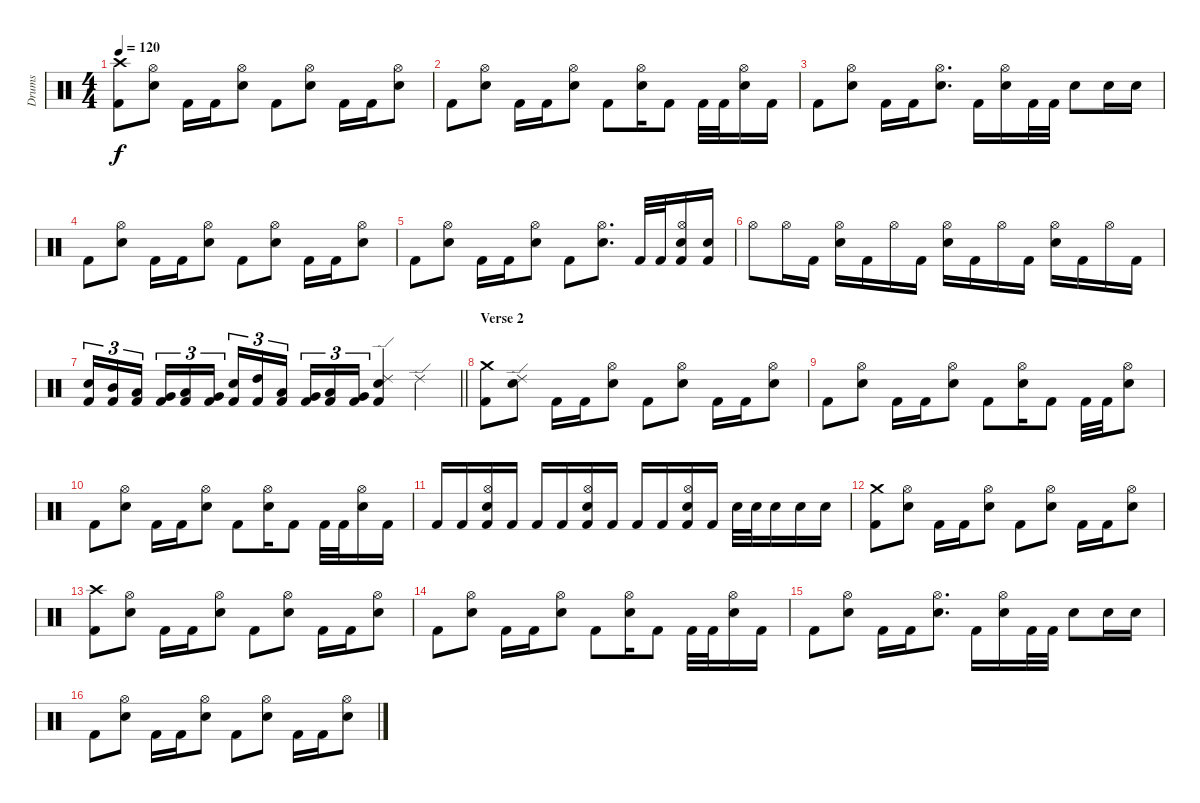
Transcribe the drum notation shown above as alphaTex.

\track ("Drums" "Drums") {instrument percussion}
\staff {score}
\articulation defaults
\ts (4 4)
\tempo 120
\clef neutral
\ks c
("Crash high (hit)" "Kick (hit) 2").8{dy f} ("Hi-Hat (open)" "Electric Snare (hit)").8 "Kick (hit) 2".16 "Kick (hit) 2".16 ("Hi-Hat (open)" "Electric Snare (hit)").8 "Kick (hit) 2".8 ("Hi-Hat (open)" "Electric Snare (hit)").8 "Kick (hit) 2".16 "Kick (hit) 2".16 ("Hi-Hat (open)" "Electric Snare (hit)").8 |
"Kick (hit) 2".8 ("Hi-Hat (open)" "Electric Snare (hit)").8 "Kick (hit) 2".16 "Kick (hit) 2".16 ("Hi-Hat (open)" "Electric Snare (hit)").8 "Kick (hit) 2".8 ("Hi-Hat (open)" "Electric Snare (hit)").16 "Kick (hit) 2".8 "Kick (hit) 2".32 "Kick (hit) 2".32 ("Hi-Hat (open)" "Electric Snare (hit)").16 "Kick (hit) 2".16 |
"Kick (hit) 2".8 ("Hi-Hat (open)" "Electric Snare (hit)").8 "Kick (hit) 2".16 "Kick (hit) 2".16 ("Hi-Hat (open)" "Electric Snare (hit)").8{d} "Kick (hit) 2".16 ("Hi-Hat (open)" "Electric Snare (hit)").16 "Kick (hit) 2".32 "Kick (hit) 2".32 "Electric Snare (hit)".8 "Electric Snare (hit)".16 "Electric Snare (hit)".16 |
"Kick (hit) 2".8 ("Hi-Hat (open)" "Electric Snare (hit)").8 "Kick (hit) 2".16 "Kick (hit) 2".16 ("Hi-Hat (open)" "Electric Snare (hit)").8 "Kick (hit) 2".8 ("Hi-Hat (open)" "Electric Snare (hit)").8 "Kick (hit) 2".16 "Kick (hit) 2".16 ("Hi-Hat (open)" "Electric Snare (hit)").8 |
"Kick (hit) 2".8 ("Hi-Hat (open)" "Electric Snare (hit)").8 "Kick (hit) 2".16 "Kick (hit) 2".16 ("Hi-Hat (open)" "Electric Snare (hit)").8 "Kick (hit) 2".8 ("Hi-Hat (open)" "Electric Snare (hit)").8{d} "Kick (hit) 2".32 "Kick (hit) 2".32 ("Hi-Hat (open)" "Electric Snare (hit)" "Kick (hit) 2").16 ("Electric Snare (hit)" "Kick (hit) 2").16 |
"Hi-Hat (open)".8 "Hi-Hat (open)".16 "Kick (hit) 2".16 ("Hi-Hat (open)" "Electric Snare (hit)").16 "Kick (hit) 2".16 "Hi-Hat (open)".16 "Kick (hit) 2".16 ("Hi-Hat (open)" "Electric Snare (hit)").16 "Kick (hit) 2".16 "Hi-Hat (open)".16 "Kick (hit) 2".16 ("Hi-Hat (open)" "Electric Snare (hit)").16 "Kick (hit) 2".16 "Hi-Hat (open)".16 "Kick (hit) 2".16 |
\barLineRight lightlight
("Electric Snare (hit)" "Kick (hit) 2").16{tu (3 2)} ("Mid Tom (hit)" "Kick (hit) 2").16{tu (3 2)} ("Low Tom (hit)" "Kick (hit) 2").16{tu (3 2) beam splitsecondary} ("Very Low Tom (hit)" "Kick (hit) 2").16{tu (3 2)} ("Low Tom (hit)" "Kick (hit) 2").16{tu (3 2)} ("Very Low Tom (hit)" "Kick (hit) 2").16{tu (3 2)} ("Electric Snare (hit)" "Kick (hit) 2").16{tu (3 2)} ("High Tom (hit)" "Kick (hit) 2").16{tu (3 2)} ("Low Tom (hit)" "Kick (hit) 2").16{tu (3 2) beam splitsecondary} ("Very Low Tom (hit)" "Kick (hit) 2").16{tu (3 2)} ("Low Floor Tom (hit)" "Kick (hit) 2").16{tu (3 2)} ("Very Low Tom (hit)" "Kick (hit) 2").16{tu (3 2)} ("Ride (edge) 2" "Electric Snare (hit)" "Kick (hit) 2").4 "Ride (edge) 2".4 |
\section ("" "Verse 2")
("Crash medium (hit)" "Kick (hit) 2").8 ("Ride (edge) 2" "Electric Snare (hit)").8 "Kick (hit) 2".16 "Kick (hit) 2".16 ("Hi-Hat (open)" "Electric Snare (hit)").8 "Kick (hit) 2".8 ("Hi-Hat (open)" "Electric Snare (hit)").8 "Kick (hit) 2".16 "Kick (hit) 2".16 ("Hi-Hat (open)" "Electric Snare (hit)").8 |
"Kick (hit) 2".8 ("Hi-Hat (open)" "Electric Snare (hit)").8 "Kick (hit) 2".16 "Kick (hit) 2".16 ("Hi-Hat (open)" "Electric Snare (hit)").8 "Kick (hit) 2".8 ("Hi-Hat (open)" "Electric Snare (hit)").16 "Kick (hit) 2".8 "Kick (hit) 2".32 "Kick (hit) 2".32 ("Hi-Hat (open)" "Electric Snare (hit)").8 |
"Kick (hit) 2".8 ("Hi-Hat (open)" "Electric Snare (hit)").8 "Kick (hit) 2".16 "Kick (hit) 2".16 ("Hi-Hat (open)" "Electric Snare (hit)").8 "Kick (hit) 2".8 ("Hi-Hat (open)" "Electric Snare (hit)").16 "Kick (hit) 2".8 "Kick (hit) 2".32 "Kick (hit) 2".32 ("Hi-Hat (open)" "Electric Snare (hit)").16 "Kick (hit) 2".16 |
"Kick (hit) 2".16 "Kick (hit) 2".16 ("Hi-Hat (open)" "Electric Snare (hit)" "Kick (hit) 2").16 "Kick (hit) 2".16 "Kick (hit) 2".16 "Kick (hit) 2".16 ("Hi-Hat (open)" "Electric Snare (hit)" "Kick (hit) 2").16 "Kick (hit) 2".16 "Kick (hit) 2".16 "Kick (hit) 2".16 ("Hi-Hat (open)" "Electric Snare (hit)" "Kick (hit) 2").16 "Kick (hit) 2".16 "Electric Snare (hit)".32 "Electric Snare (hit)".32 "Electric Snare (hit)".16 "Electric Snare (hit)".16 "Electric Snare (hit)".16 |
("Crash medium (hit)" "Kick (hit) 2").8 ("Hi-Hat (open)" "Electric Snare (hit)").8 "Kick (hit) 2".16 "Kick (hit) 2".16 ("Hi-Hat (open)" "Electric Snare (hit)").8 "Kick (hit) 2".8 ("Hi-Hat (open)" "Electric Snare (hit)").8 "Kick (hit) 2".16 "Kick (hit) 2".16 ("Hi-Hat (open)" "Electric Snare (hit)").8 |
("Crash high (hit)" "Kick (hit) 2").8 ("Hi-Hat (open)" "Electric Snare (hit)").8 "Kick (hit) 2".16 "Kick (hit) 2".16 ("Hi-Hat (open)" "Electric Snare (hit)").8 "Kick (hit) 2".8 ("Hi-Hat (open)" "Electric Snare (hit)").8 "Kick (hit) 2".16 "Kick (hit) 2".16 ("Hi-Hat (open)" "Electric Snare (hit)").8 |
"Kick (hit) 2".8 ("Hi-Hat (open)" "Electric Snare (hit)").8 "Kick (hit) 2".16 "Kick (hit) 2".16 ("Hi-Hat (open)" "Electric Snare (hit)").8 "Kick (hit) 2".8 ("Hi-Hat (open)" "Electric Snare (hit)").16 "Kick (hit) 2".8 "Kick (hit) 2".32 "Kick (hit) 2".32 ("Hi-Hat (open)" "Electric Snare (hit)").16 "Kick (hit) 2".16 |
"Kick (hit) 2".8 ("Hi-Hat (open)" "Electric Snare (hit)").8 "Kick (hit) 2".16 "Kick (hit) 2".16 ("Hi-Hat (open)" "Electric Snare (hit)").8{d} "Kick (hit) 2".16 ("Hi-Hat (open)" "Electric Snare (hit)").16 "Kick (hit) 2".32 "Kick (hit) 2".32 "Electric Snare (hit)".8 "Electric Snare (hit)".16 "Electric Snare (hit)".16 |
"Kick (hit) 2".8 ("Hi-Hat (open)" "Electric Snare (hit)").8 "Kick (hit) 2".16 "Kick (hit) 2".16 ("Hi-Hat (open)" "Electric Snare (hit)").8 "Kick (hit) 2".8 ("Hi-Hat (open)" "Electric Snare (hit)").8 "Kick (hit) 2".16 "Kick (hit) 2".16 ("Hi-Hat (open)" "Electric Snare (hit)").8
